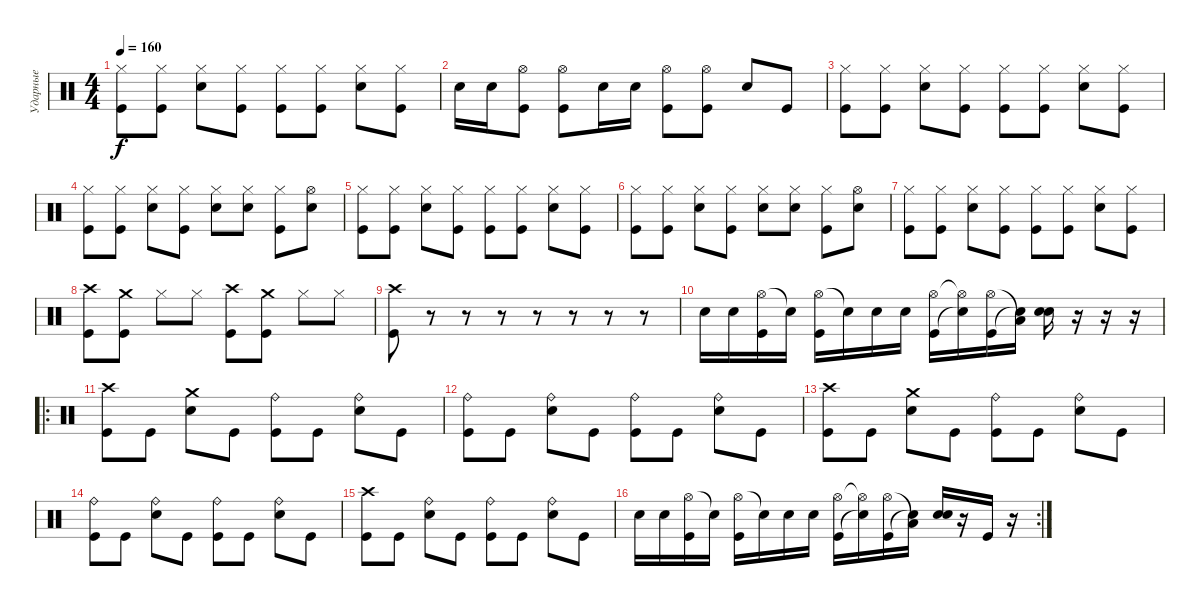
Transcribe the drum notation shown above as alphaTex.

\track ("Ударные" "Ударные") {instrument percussion}
\staff {score}
\articulation defaults
\ts (4 4)
\tempo 160
\clef neutral
\ks c
("Hi-Hat (closed)" "Kick (hit)").8{dy f} ("Hi-Hat (closed)" "Kick (hit)").8 ("Hi-Hat (closed)" "Electric Snare (hit)").8 ("Hi-Hat (closed)" "Kick (hit)").8 ("Hi-Hat (closed)" "Kick (hit)").8 ("Hi-Hat (closed)" "Kick (hit)").8 ("Hi-Hat (closed)" "Electric Snare (hit)").8 ("Hi-Hat (closed)" "Kick (hit)").8 |
"Electric Snare (hit)".16 "Electric Snare (hit)".16 ("Hi-Hat (open)" "Kick (hit)").8 ("Hi-Hat (open)" "Kick (hit)").8 "Electric Snare (hit)".16 "Electric Snare (hit)".16 ("Hi-Hat (open)" "Kick (hit)").8 ("Hi-Hat (open)" "Kick (hit)").8 "Electric Snare (hit)".8 "Kick (hit)".8 |
("Hi-Hat (closed)" "Kick (hit)").8 ("Hi-Hat (closed)" "Kick (hit)").8 ("Hi-Hat (closed)" "Electric Snare (hit)").8 ("Hi-Hat (closed)" "Kick (hit)").8 ("Hi-Hat (closed)" "Kick (hit)").8 ("Hi-Hat (closed)" "Kick (hit)").8 ("Hi-Hat (closed)" "Electric Snare (hit)").8 ("Hi-Hat (closed)" "Kick (hit)").8 |
("Hi-Hat (closed)" "Kick (hit)").8 ("Hi-Hat (closed)" "Kick (hit)").8 ("Hi-Hat (closed)" "Electric Snare (hit)").8 ("Hi-Hat (closed)" "Kick (hit)").8 ("Hi-Hat (closed)" "Electric Snare (hit)").8 ("Hi-Hat (closed)" "Electric Snare (hit)").8 ("Hi-Hat (closed)" "Kick (hit)").8 ("Hi-Hat (open)" "Electric Snare (hit)").8 |
("Hi-Hat (closed)" "Kick (hit)").8 ("Hi-Hat (closed)" "Kick (hit)").8 ("Hi-Hat (closed)" "Electric Snare (hit)").8 ("Hi-Hat (closed)" "Kick (hit)").8 ("Hi-Hat (closed)" "Kick (hit)").8 ("Hi-Hat (closed)" "Kick (hit)").8 ("Hi-Hat (closed)" "Electric Snare (hit)").8 ("Hi-Hat (closed)" "Kick (hit)").8 |
("Hi-Hat (closed)" "Kick (hit)").8 ("Hi-Hat (closed)" "Kick (hit)").8 ("Hi-Hat (closed)" "Electric Snare (hit)").8 ("Hi-Hat (closed)" "Kick (hit)").8 ("Hi-Hat (closed)" "Electric Snare (hit)").8 ("Hi-Hat (closed)" "Electric Snare (hit)").8 ("Hi-Hat (closed)" "Kick (hit)").8 ("Hi-Hat (open)" "Electric Snare (hit)").8 |
("Hi-Hat (closed)" "Kick (hit)").8 ("Hi-Hat (closed)" "Kick (hit)").8 ("Hi-Hat (closed)" "Electric Snare (hit)").8 ("Hi-Hat (closed)" "Kick (hit)").8 ("Hi-Hat (closed)" "Kick (hit)").8 ("Hi-Hat (closed)" "Kick (hit)").8 ("Hi-Hat (closed)" "Electric Snare (hit)").8 ("Hi-Hat (closed)" "Kick (hit)").8 |
("Crash high (hit)" "Kick (hit)").8 ("Crash medium (hit)" "Kick (hit)").8 "Hi-Hat (closed)".8 "Hi-Hat (closed)".8 ("Crash high (hit)" "Kick (hit)").8 ("Crash medium (hit)" "Kick (hit)").8 "Hi-Hat (closed)".8 "Hi-Hat (closed)".8 |
("Crash high (hit)" "Kick (hit)").8 r.8 r.8 r.8 r.8 r.8 r.8 r.8 |
"Electric Snare (hit)".16 "Electric Snare (hit)".16 ("Hi-Hat (open)" "Kick (hit)").16 "Snare (hit)"{t}.16 ("Hi-Hat (open)" "Kick (hit)").16 "Snare (hit)"{t}.16 "Electric Snare (hit)".16 "Electric Snare (hit)".16 ("Hi-Hat (open)" "Kick (hit)").16 ("Hi-Hat (open)"{t} "Snare (hit)"{t}).16 ("Hi-Hat (open)" "Kick (hit)").16 ("Low Tom (hit)"{t} "Snare (hit)"{t}).16 ("Electric Snare (hit)" "Electric Snare (hit)").16 r.16 r.16 r.16 |
\ro
("Crash high (hit)" "Kick (hit)").8 "Kick (hit)".8 ("Crash medium (hit)" "Electric Snare (hit)").8 "Kick (hit)".8 ("Ride (bell)" "Kick (hit)").8 "Kick (hit)".8 ("Ride (bell)" "Electric Snare (hit)").8 "Kick (hit)".8 |
("Ride (bell)" "Kick (hit)").8 "Kick (hit)".8 ("Ride (bell)" "Electric Snare (hit)").8 "Kick (hit)".8 ("Ride (bell)" "Kick (hit)").8 "Kick (hit)".8 ("Ride (bell)" "Electric Snare (hit)").8 "Kick (hit)".8 |
("Crash high (hit)" "Kick (hit)").8 "Kick (hit)".8 ("Crash medium (hit)" "Electric Snare (hit)").8 "Kick (hit)".8 ("Ride (bell)" "Kick (hit)").8 "Kick (hit)".8 ("Ride (bell)" "Electric Snare (hit)").8 "Kick (hit)".8 |
("Ride (bell)" "Kick (hit)").8 "Kick (hit)".8 ("Ride (bell)" "Electric Snare (hit)").8 "Kick (hit)".8 ("Ride (bell)" "Kick (hit)").8 "Kick (hit)".8 ("Ride (bell)" "Electric Snare (hit)").8 "Kick (hit)".8 |
("Crash high (hit)" "Kick (hit)").8 "Kick (hit)".8 ("Ride (bell)" "Electric Snare (hit)").8 "Kick (hit)".8 ("Ride (bell)" "Kick (hit)").8 "Kick (hit)".8 ("Ride (bell)" "Electric Snare (hit)").8 "Kick (hit)".8 |
\rc 2 "Electric Snare (hit)".16 "Electric Snare (hit)".16
("Hi-Hat (open)" "Kick (hit)").16 "Snare (hit)"{t}.16 ("Hi-Hat (open)" "Kick (hit)").16 "Snare (hit)"{t}.16 "Electric Snare (hit)".16 "Electric Snare (hit)".16 ("Hi-Hat (open)" "Kick (hit)").16 ("Hi-Hat (open)"{t} "Snare (hit)"{t}).16 ("Hi-Hat (open)" "Kick (hit)").16 ("Low Tom (hit)"{t} "Snare (hit)"{t}).16 ("Electric Snare (hit)" "Electric Snare (hit)").16 r.16 "Kick (hit)".16 r.16
